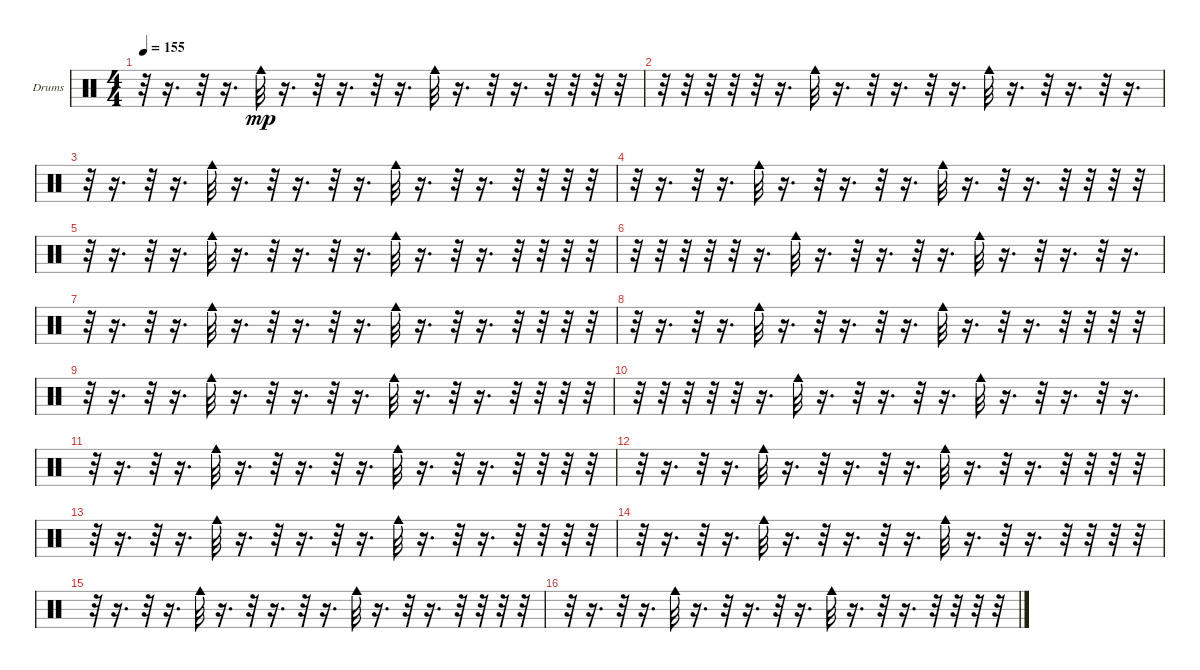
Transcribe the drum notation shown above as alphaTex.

\bracketExtendMode groupsimilarinstruments
\firstSystemTrackNameOrientation horizontal
\otherSystemsTrackNameOrientation horizontal
\track ("Е. Кулаков" "Drums") {instrument percussion}
\staff {score}
\articulation defaults
\ts (4 4)
\tempo 155
\clef neutral
\ks c
r.32{dy mp} r.16{d} r.32 r.16{d} "Cowbell medium (hit)".32 r.16{d} r.32 r.16{d} r.32 r.16{d} "Cowbell medium (hit)".32 r.16{d} r.32 r.16{d} r.32 r.32 r.32 r.32 |
r.32 r.32 r.32 r.32 r.32 r.16{d} "Cowbell medium (hit)".32 r.16{d} r.32 r.16{d} r.32 r.16{d} "Cowbell medium (hit)".32 r.16{d} r.32 r.16{d} r.32 r.16{d} |
r.32 r.16{d} r.32 r.16{d} "Cowbell medium (hit)".32 r.16{d} r.32 r.16{d} r.32 r.16{d} "Cowbell medium (hit)".32 r.16{d} r.32 r.16{d} r.32 r.32 r.32 r.32 |
r.32 r.16{d} r.32 r.16{d} "Cowbell medium (hit)".32 r.16{d} r.32 r.16{d} r.32 r.16{d} "Cowbell medium (hit)".32 r.16{d} r.32 r.16{d} r.32 r.32 r.32 r.32 |
r.32 r.16{d} r.32 r.16{d} "Cowbell medium (hit)".32 r.16{d} r.32 r.16{d} r.32 r.16{d} "Cowbell medium (hit)".32 r.16{d} r.32 r.16{d} r.32 r.32 r.32 r.32 |
r.32 r.32 r.32 r.32 r.32 r.16{d} "Cowbell medium (hit)".32 r.16{d} r.32 r.16{d} r.32 r.16{d} "Cowbell medium (hit)".32 r.16{d} r.32 r.16{d} r.32 r.16{d} |
r.32 r.16{d} r.32 r.16{d} "Cowbell medium (hit)".32 r.16{d} r.32 r.16{d} r.32 r.16{d} "Cowbell medium (hit)".32 r.16{d} r.32 r.16{d} r.32 r.32 r.32 r.32 |
r.32 r.16{d} r.32 r.16{d} "Cowbell medium (hit)".32 r.16{d} r.32 r.16{d} r.32 r.16{d} "Cowbell medium (hit)".32 r.16{d} r.32 r.16{d} r.32 r.32 r.32 r.32 |
r.32 r.16{d} r.32 r.16{d} "Cowbell medium (hit)".32 r.16{d} r.32 r.16{d} r.32 r.16{d} "Cowbell medium (hit)".32 r.16{d} r.32 r.16{d} r.32 r.32 r.32 r.32 |
r.32 r.32 r.32 r.32 r.32 r.16{d} "Cowbell medium (hit)".32 r.16{d} r.32 r.16{d} r.32 r.16{d} "Cowbell medium (hit)".32 r.16{d} r.32 r.16{d} r.32 r.16{d} |
r.32 r.16{d} r.32 r.16{d} "Cowbell medium (hit)".32 r.16{d} r.32 r.16{d} r.32 r.16{d} "Cowbell medium (hit)".32 r.16{d} r.32 r.16{d} r.32 r.32 r.32 r.32 |
r.32 r.16{d} r.32 r.16{d} "Cowbell medium (hit)".32 r.16{d} r.32 r.16{d} r.32 r.16{d} "Cowbell medium (hit)".32 r.16{d} r.32 r.16{d} r.32 r.32 r.32 r.32 |
r.32 r.16{d} r.32 r.16{d} "Cowbell medium (hit)".32 r.16{d} r.32 r.16{d} r.32 r.16{d} "Cowbell medium (hit)".32 r.16{d} r.32 r.16{d} r.32 r.32 r.32 r.32 |
r.32 r.16{d} r.32 r.16{d} "Cowbell medium (hit)".32 r.16{d} r.32 r.16{d} r.32 r.16{d} "Cowbell medium (hit)".32 r.16{d} r.32 r.16{d} r.32 r.32 r.32 r.32 |
r.32 r.16{d} r.32 r.16{d} "Cowbell medium (hit)".32 r.16{d} r.32 r.16{d} r.32 r.16{d} "Cowbell medium (hit)".32 r.16{d} r.32 r.16{d} r.32 r.32 r.32 r.32 |
r.32 r.16{d} r.32 r.16{d} "Cowbell medium (hit)".32 r.16{d} r.32 r.16{d} r.32 r.16{d} "Cowbell medium (hit)".32 r.16{d} r.32 r.16{d} r.32 r.32 r.32 r.32
